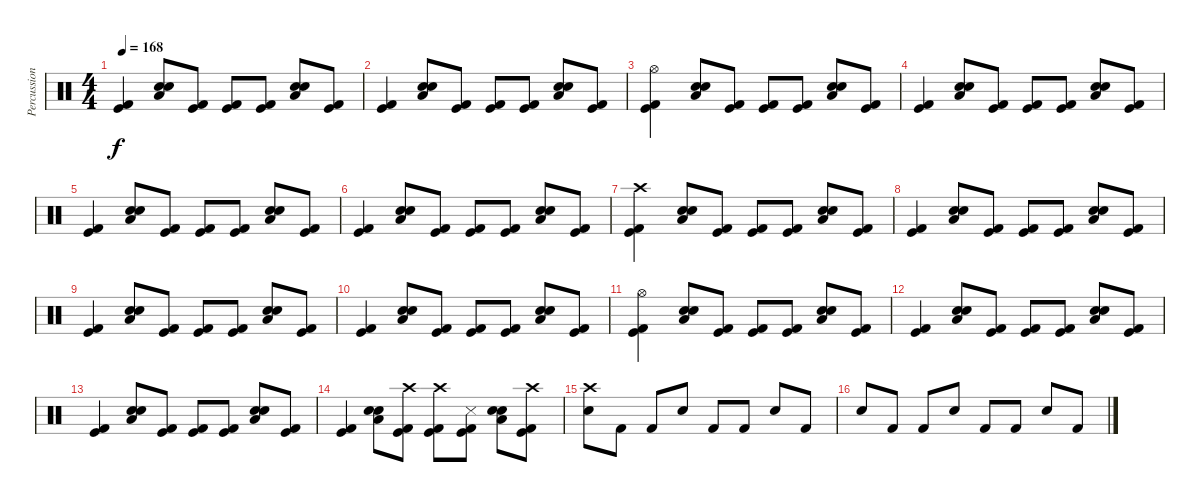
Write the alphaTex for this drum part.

\track ("Percussion" "Percussion") {instrument percussion}
\staff {score}
\articulation defaults
\ts (4 4)
\tempo 168
\clef neutral
\ks c
("Kick (hit)" "Kick (hit) 2").4{dy f} ("Electric Snare (hit)" "Low Floor Tom (hit)" "Snare (hit) 2").8 ("Kick (hit)" "Kick (hit) 2").8 ("Kick (hit)" "Kick (hit) 2").8 ("Kick (hit)" "Kick (hit) 2").8 ("Electric Snare (hit)" "Low Floor Tom (hit)" "Snare (hit) 2").8 ("Kick (hit)" "Kick (hit) 2").8 |
("Kick (hit)" "Kick (hit) 2").4 ("Electric Snare (hit)" "Low Floor Tom (hit)" "Snare (hit) 2").8 ("Kick (hit)" "Kick (hit) 2").8 ("Kick (hit)" "Kick (hit) 2").8 ("Kick (hit)" "Kick (hit) 2").8 ("Electric Snare (hit)" "Low Floor Tom (hit)" "Snare (hit) 2").8 ("Kick (hit)" "Kick (hit) 2").8 |
("Hi-Hat (open)" "Kick (hit)" "Kick (hit) 2").4 ("Electric Snare (hit)" "Low Floor Tom (hit)" "Snare (hit) 2").8 ("Kick (hit)" "Kick (hit) 2").8 ("Kick (hit)" "Kick (hit) 2").8 ("Kick (hit)" "Kick (hit) 2").8 ("Electric Snare (hit)" "Low Floor Tom (hit)" "Snare (hit) 2").8 ("Kick (hit)" "Kick (hit) 2").8 |
("Kick (hit)" "Kick (hit) 2").4 ("Electric Snare (hit)" "Low Floor Tom (hit)" "Snare (hit) 2").8 ("Kick (hit)" "Kick (hit) 2").8 ("Kick (hit)" "Kick (hit) 2").8 ("Kick (hit)" "Kick (hit) 2").8 ("Electric Snare (hit)" "Low Floor Tom (hit)" "Snare (hit) 2").8 ("Kick (hit)" "Kick (hit) 2").8 |
("Kick (hit)" "Kick (hit) 2").4 ("Electric Snare (hit)" "Low Floor Tom (hit)" "Snare (hit) 2").8 ("Kick (hit)" "Kick (hit) 2").8 ("Kick (hit)" "Kick (hit) 2").8 ("Kick (hit)" "Kick (hit) 2").8 ("Electric Snare (hit)" "Low Floor Tom (hit)" "Snare (hit) 2").8 ("Kick (hit)" "Kick (hit) 2").8 |
("Kick (hit)" "Kick (hit) 2").4 ("Electric Snare (hit)" "Low Floor Tom (hit)" "Snare (hit) 2").8 ("Kick (hit)" "Kick (hit) 2").8 ("Kick (hit)" "Kick (hit) 2").8 ("Kick (hit)" "Kick (hit) 2").8 ("Electric Snare (hit)" "Low Floor Tom (hit)" "Snare (hit) 2").8 ("Kick (hit)" "Kick (hit) 2").8 |
("Crash high (hit)" "Kick (hit)" "Kick (hit) 2").4 ("Electric Snare (hit)" "Low Floor Tom (hit)" "Snare (hit) 2").8 ("Kick (hit)" "Kick (hit) 2").8 ("Kick (hit)" "Kick (hit) 2").8 ("Kick (hit)" "Kick (hit) 2").8 ("Electric Snare (hit)" "Low Floor Tom (hit)" "Snare (hit) 2").8 ("Kick (hit)" "Kick (hit) 2").8 |
("Kick (hit)" "Kick (hit) 2").4 ("Electric Snare (hit)" "Low Floor Tom (hit)" "Snare (hit) 2").8 ("Kick (hit)" "Kick (hit) 2").8 ("Kick (hit)" "Kick (hit) 2").8 ("Kick (hit)" "Kick (hit) 2").8 ("Electric Snare (hit)" "Low Floor Tom (hit)" "Snare (hit) 2").8 ("Kick (hit)" "Kick (hit) 2").8 |
("Kick (hit)" "Kick (hit) 2").4 ("Electric Snare (hit)" "Low Floor Tom (hit)" "Snare (hit) 2").8 ("Kick (hit)" "Kick (hit) 2").8 ("Kick (hit)" "Kick (hit) 2").8 ("Kick (hit)" "Kick (hit) 2").8 ("Electric Snare (hit)" "Low Floor Tom (hit)" "Snare (hit) 2").8 ("Kick (hit)" "Kick (hit) 2").8 |
("Kick (hit)" "Kick (hit) 2").4 ("Electric Snare (hit)" "Low Floor Tom (hit)" "Snare (hit) 2").8 ("Kick (hit)" "Kick (hit) 2").8 ("Kick (hit)" "Kick (hit) 2").8 ("Kick (hit)" "Kick (hit) 2").8 ("Electric Snare (hit)" "Low Floor Tom (hit)" "Snare (hit) 2").8 ("Kick (hit)" "Kick (hit) 2").8 |
("Hi-Hat (open)" "Kick (hit)" "Kick (hit) 2").4 ("Electric Snare (hit)" "Low Floor Tom (hit)" "Snare (hit) 2").8 ("Kick (hit)" "Kick (hit) 2").8 ("Kick (hit)" "Kick (hit) 2").8 ("Kick (hit)" "Kick (hit) 2").8 ("Electric Snare (hit)" "Low Floor Tom (hit)" "Snare (hit) 2").8 ("Kick (hit)" "Kick (hit) 2").8 |
("Kick (hit)" "Kick (hit) 2").4 ("Electric Snare (hit)" "Low Floor Tom (hit)" "Snare (hit) 2").8 ("Kick (hit)" "Kick (hit) 2").8 ("Kick (hit)" "Kick (hit) 2").8 ("Kick (hit)" "Kick (hit) 2").8 ("Electric Snare (hit)" "Low Floor Tom (hit)" "Snare (hit) 2").8 ("Kick (hit)" "Kick (hit) 2").8 |
("Kick (hit)" "Kick (hit) 2").4 ("Electric Snare (hit)" "Low Floor Tom (hit)" "Snare (hit) 2").8 ("Kick (hit)" "Kick (hit) 2").8 ("Kick (hit)" "Kick (hit) 2").8 ("Kick (hit)" "Kick (hit) 2").8 ("Electric Snare (hit)" "Low Floor Tom (hit)" "Snare (hit) 2").8 ("Kick (hit)" "Kick (hit) 2").8 |
("Kick (hit)" "Kick (hit) 2").4 ("Electric Snare (hit)" "Low Floor Tom (hit)" "Snare (hit) 2").8 ("Crash high (hit)" "Kick (hit)" "Kick (hit) 2").8 ("Crash high (hit)" "Kick (hit)" "Kick (hit) 2").8 ("Snare (side stick) 3" "Kick (hit)" "Kick (hit) 2").8 ("Electric Snare (hit)" "Low Floor Tom (hit)" "Snare (hit) 2").8 ("Crash high (hit)" "Kick (hit)" "Kick (hit) 2").8 |
("Crash high (hit)" "Electric Snare (hit)").8 "Kick (hit) 2".8 "Kick (hit) 2".8 "Electric Snare (hit)".8 "Kick (hit) 2".8 "Kick (hit) 2".8 "Electric Snare (hit)".8 "Kick (hit) 2".8 |
"Electric Snare (hit)".8 "Kick (hit) 2".8 "Kick (hit) 2".8 "Electric Snare (hit)".8 "Kick (hit) 2".8 "Kick (hit) 2".8 "Electric Snare (hit)".8 "Kick (hit) 2".8
